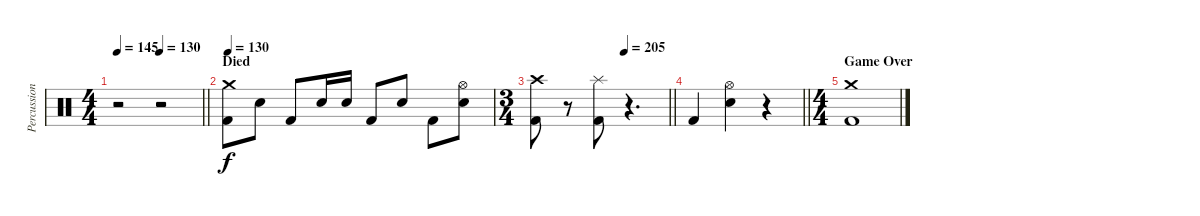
\track ("Percussion" "Percussion") {instrument percussion}
\staff {score}
\articulation defaults
\ts (4 4)
\tempo 145
\tempo (130 0.5)
\clef neutral
\barLineRight lightlight
\ks c
r.2{dy f} r.2 |
\section ("" "Died")
\tempo 130
("Crash medium (hit)" "Kick (hit) 2").8 "Electric Snare (hit)".8 "Kick (hit) 2".8 "Electric Snare (hit)".16 "Electric Snare (hit)".16 "Kick (hit) 2".8 "Electric Snare (hit)".8 "Kick (hit) 2".8 ("Hi-Hat (open)" "Electric Snare (hit)").8 |
\ts (3 4)
\tempo (205 0.6666666666666666)
\barLineRight lightlight
("Crash high (hit)" "Kick (hit) 2").8 r.8 ("Splash (hit)" "Kick (hit) 2").8 r.4{d} |
\barLineRight lightlight "Kick (hit) 2".4
("Hi-Hat (open)" "Electric Snare (hit)").4 r.4 |
\ts (4 4)
\section ("" "Game Over")
("Crash medium (hit)" "Kick (hit) 2").1
